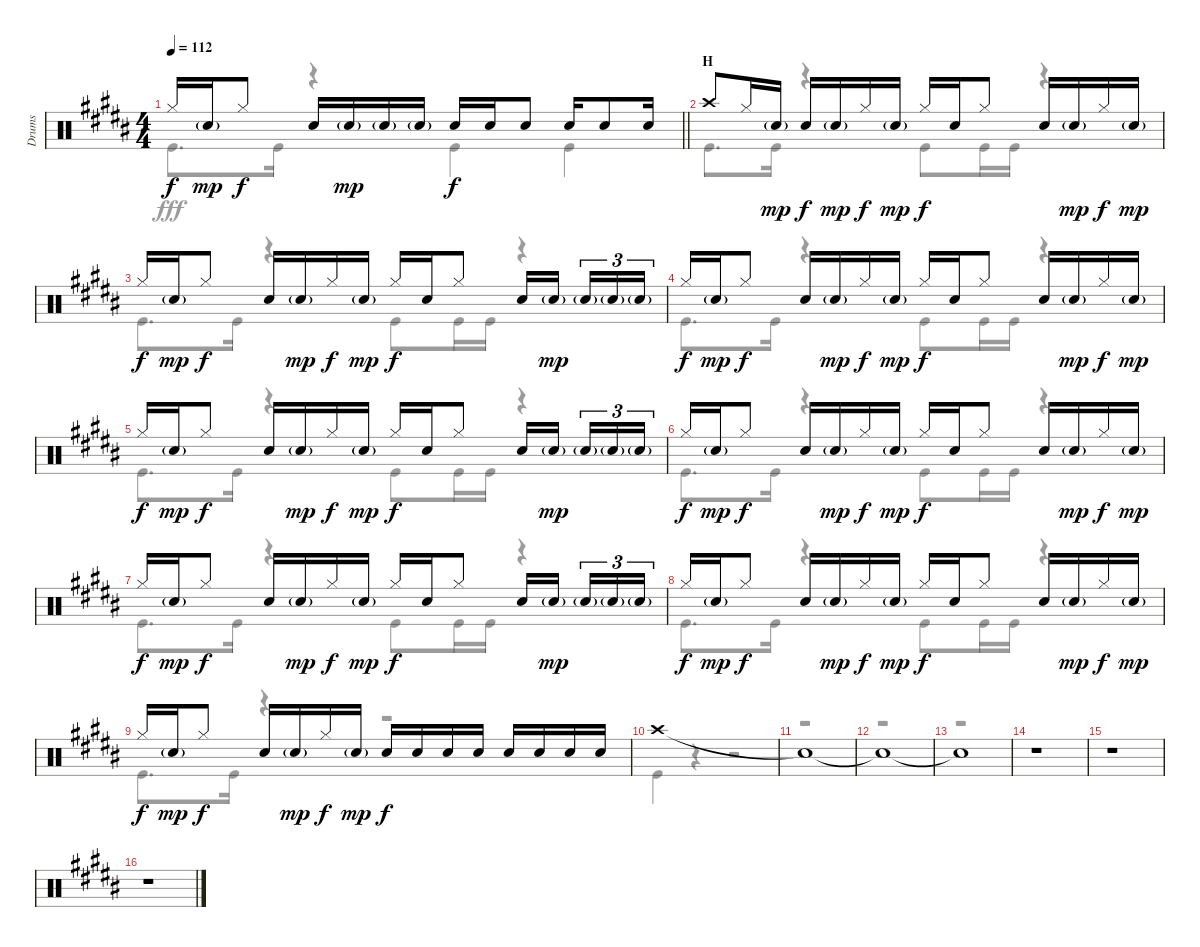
\track ("Drums" "Drums") {instrument percussion}
\staff {score}
\articulation defaults
\voice
\ts (4 4)
\tempo 112
\clef neutral
\barLineRight lightlight
\ks b "Hi-Hat (closed)".16{dy f} "Snare (hit) 2"{g}.16{dy mp} "Hi-Hat (closed)".8{dy f} "Snare (hit) 2".16 "Snare (hit) 2"{g}.16{dy mp} "Snare (hit) 2"{g}.16 "Snare (hit) 2"{g}.16 "Snare (hit) 2".16{dy f} "Snare (hit) 2".16 "Snare (hit) 2".8 "Snare (hit) 2".16 "Snare (hit) 2".8 "Snare (hit) 2".16
|
\section ("" "H")
"Crash high (hit)".8 "Hi-Hat (closed)".16 "Snare (hit) 2"{g}.16{dy mp} "Snare (hit) 2".16{dy f} "Snare (hit) 2"{g}.16{dy mp} "Hi-Hat (closed)".16{dy f} "Snare (hit) 2"{g}.16{dy mp} "Hi-Hat (closed)".16{dy f} "Snare (hit) 2".16 "Hi-Hat (closed)".8 "Snare (hit) 2".16 "Snare (hit) 2"{g}.16{dy mp} "Hi-Hat (closed)".16{dy f} "Snare (hit) 2"{g}.16{dy mp} |
"Hi-Hat (closed)".16{dy f} "Snare (hit) 2"{g}.16{dy mp} "Hi-Hat (closed)".8{dy f} "Snare (hit) 2".16 "Snare (hit) 2"{g}.16{dy mp} "Hi-Hat (closed)".16{dy f} "Snare (hit) 2"{g}.16{dy mp} "Hi-Hat (closed)".16{dy f} "Snare (hit) 2".16 "Hi-Hat (closed)".8 "Snare (hit) 2".16 "Snare (hit) 2"{g}.16{dy mp beam splitsecondary} "Snare (hit) 2"{g}.16{tu (3 2)} "Snare (hit) 2"{g}.16{tu (3 2)} "Snare (hit) 2"{g}.16{tu (3 2)} |
"Hi-Hat (closed)".16{dy f} "Snare (hit) 2"{g}.16{dy mp} "Hi-Hat (closed)".8{dy f} "Snare (hit) 2".16 "Snare (hit) 2"{g}.16{dy mp} "Hi-Hat (closed)".16{dy f} "Snare (hit) 2"{g}.16{dy mp} "Hi-Hat (closed)".16{dy f} "Snare (hit) 2".16 "Hi-Hat (closed)".8 "Snare (hit) 2".16 "Snare (hit) 2"{g}.16{dy mp} "Hi-Hat (closed)".16{dy f} "Snare (hit) 2"{g}.16{dy mp} |
"Hi-Hat (closed)".16{dy f} "Snare (hit) 2"{g}.16{dy mp} "Hi-Hat (closed)".8{dy f} "Snare (hit) 2".16 "Snare (hit) 2"{g}.16{dy mp} "Hi-Hat (closed)".16{dy f} "Snare (hit) 2"{g}.16{dy mp} "Hi-Hat (closed)".16{dy f} "Snare (hit) 2".16 "Hi-Hat (closed)".8 "Snare (hit) 2".16 "Snare (hit) 2"{g}.16{dy mp beam splitsecondary} "Snare (hit) 2"{g}.16{tu (3 2)} "Snare (hit) 2"{g}.16{tu (3 2)} "Snare (hit) 2"{g}.16{tu (3 2)} |
"Hi-Hat (closed)".16{dy f} "Snare (hit) 2"{g}.16{dy mp} "Hi-Hat (closed)".8{dy f} "Snare (hit) 2".16 "Snare (hit) 2"{g}.16{dy mp} "Hi-Hat (closed)".16{dy f} "Snare (hit) 2"{g}.16{dy mp} "Hi-Hat (closed)".16{dy f} "Snare (hit) 2".16 "Hi-Hat (closed)".8 "Snare (hit) 2".16 "Snare (hit) 2"{g}.16{dy mp} "Hi-Hat (closed)".16{dy f} "Snare (hit) 2"{g}.16{dy mp} |
"Hi-Hat (closed)".16{dy f} "Snare (hit) 2"{g}.16{dy mp} "Hi-Hat (closed)".8{dy f} "Snare (hit) 2".16 "Snare (hit) 2"{g}.16{dy mp} "Hi-Hat (closed)".16{dy f} "Snare (hit) 2"{g}.16{dy mp} "Hi-Hat (closed)".16{dy f} "Snare (hit) 2".16 "Hi-Hat (closed)".8 "Snare (hit) 2".16 "Snare (hit) 2"{g}.16{dy mp beam splitsecondary} "Snare (hit) 2"{g}.16{tu (3 2)} "Snare (hit) 2"{g}.16{tu (3 2)} "Snare (hit) 2"{g}.16{tu (3 2)} |
"Hi-Hat (closed)".16{dy f} "Snare (hit) 2"{g}.16{dy mp} "Hi-Hat (closed)".8{dy f} "Snare (hit) 2".16 "Snare (hit) 2"{g}.16{dy mp} "Hi-Hat (closed)".16{dy f} "Snare (hit) 2"{g}.16{dy mp} "Hi-Hat (closed)".16{dy f} "Snare (hit) 2".16 "Hi-Hat (closed)".8 "Snare (hit) 2".16 "Snare (hit) 2"{g}.16{dy mp} "Hi-Hat (closed)".16{dy f} "Snare (hit) 2"{g}.16{dy mp} |
"Hi-Hat (closed)".16{dy f} "Snare (hit) 2"{g}.16{dy mp} "Hi-Hat (closed)".8{dy f} "Snare (hit) 2".16 "Snare (hit) 2"{g}.16{dy mp} "Hi-Hat (closed)".16{dy f} "Snare (hit) 2"{g}.16{dy mp} "Snare (hit) 2".16{dy f} "Snare (hit) 2".16 "Snare (hit) 2".16 "Snare (hit) 2".16 "Snare (hit) 2".16 "Snare (hit) 2".16 "Snare (hit) 2".16 "Snare (hit) 2".16 |
"Crash high (hit)".1 |
"Snare (hit)"{t}.1 |
"Snare (hit)"{t}.1 |
"Snare (hit)"{t}.1 |
r.1 |
r.1 |
r.1
\voice
\clef neutral
\ottava regular
\simile none
\barLineRight lightlight
\ks b "Kick (hit)".8{d dy fff} "Kick (hit)".16
r.4 "Kick (hit)".4 "Kick (hit)".4 |
"Kick (hit)".8{d} "Kick (hit)".16 r.4 "Kick (hit)".8 "Kick (hit)".16 "Kick (hit)".16 r.4 |
"Kick (hit)".8{d} "Kick (hit)".16 r.4 "Kick (hit)".8 "Kick (hit)".16 "Kick (hit)".16 r.4 |
"Kick (hit)".8{d} "Kick (hit)".16 r.4 "Kick (hit)".8 "Kick (hit)".16 "Kick (hit)".16 r.4 |
"Kick (hit)".8{d} "Kick (hit)".16 r.4 "Kick (hit)".8 "Kick (hit)".16 "Kick (hit)".16 r.4 |
"Kick (hit)".8{d} "Kick (hit)".16 r.4 "Kick (hit)".8 "Kick (hit)".16 "Kick (hit)".16 r.4 |
"Kick (hit)".8{d} "Kick (hit)".16 r.4 "Kick (hit)".8 "Kick (hit)".16 "Kick (hit)".16 r.4 |
"Kick (hit)".8{d} "Kick (hit)".16 r.4 "Kick (hit)".8 "Kick (hit)".16 "Kick (hit)".16 r.4 |
"Kick (hit)".8{d} "Kick (hit)".16 r.4 r.2 |
"Kick (hit)".4 r.4 r.2 |
r.1 |
r.1 |
r.1 |
r.1 |
r.1 |
r.1
